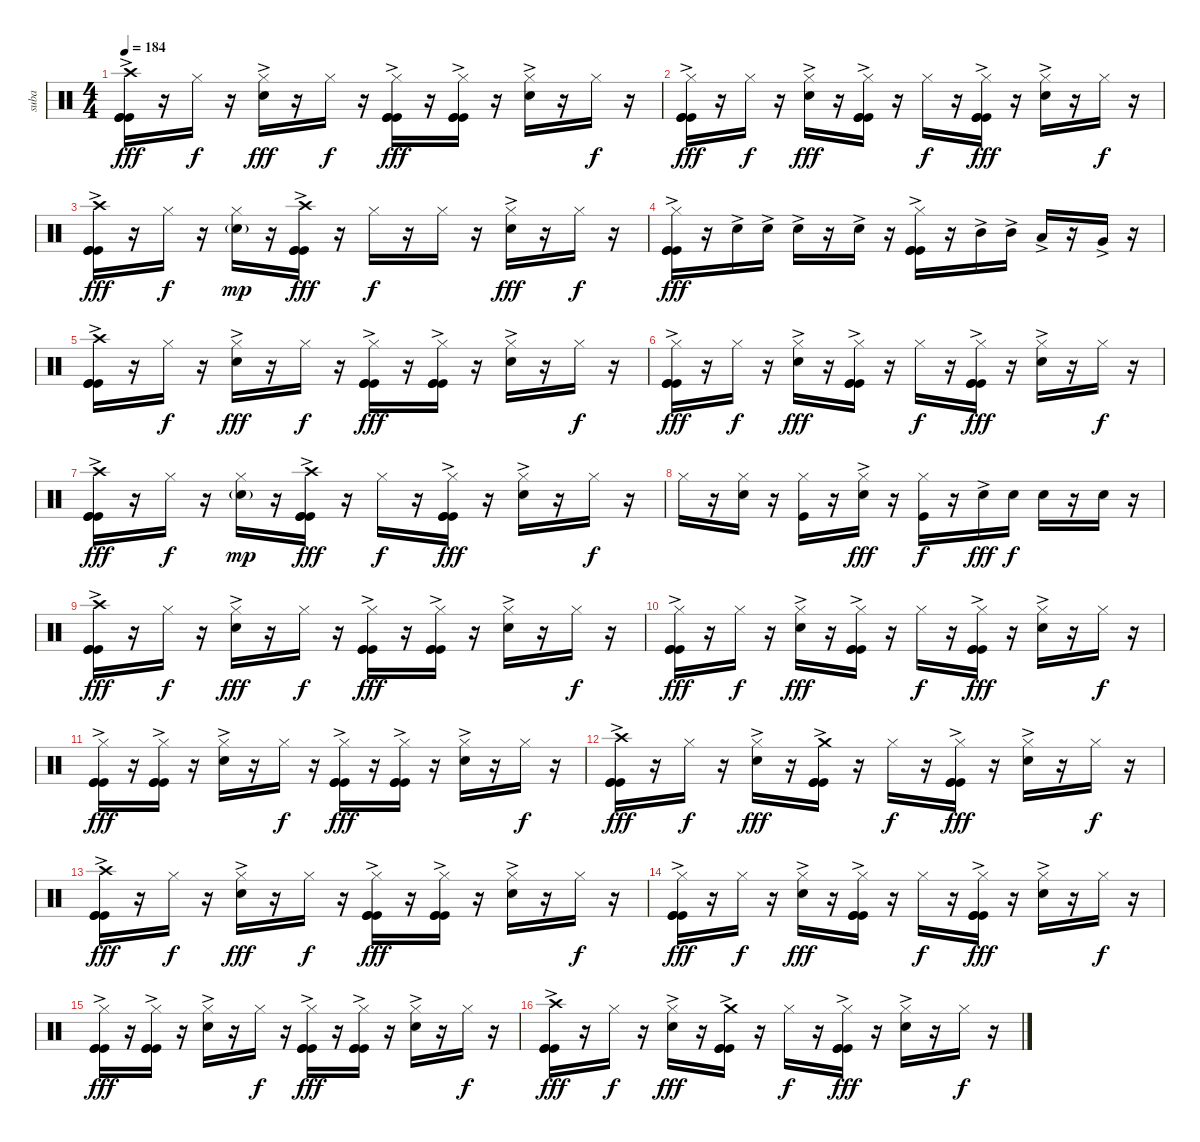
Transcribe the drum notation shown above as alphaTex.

\track ("suba" "suba") {instrument percussion}
\staff {score}
\articulation defaults
\ts (4 4)
\tempo 184
\clef neutral
\ks c
("Crash high (hit)"{ac} "Kick (hit)"{ac} "Kick (hit)"{ac} "Kick (hit)"{ac}).16{dy fff} r.16 "Hi-Hat (closed)".16{dy f} r.16 ("Hi-Hat (closed)" "Snare (hit) 2"{ac}).16{dy fff} r.16 "Hi-Hat (closed)".16{dy f} r.16 ("Hi-Hat (closed)" "Kick (hit)"{ac} "Kick (hit)"{ac} "Kick (hit)"{ac}).16{dy fff} r.16 ("Hi-Hat (closed)" "Kick (hit)"{ac} "Kick (hit)"{ac} "Kick (hit)"{ac}).16 r.16 ("Hi-Hat (closed)" "Snare (hit) 2"{ac}).16 r.16 "Hi-Hat (closed)".16{dy f} r.16 |
("Hi-Hat (closed)" "Kick (hit)"{ac} "Kick (hit)"{ac} "Kick (hit)"{ac}).16{dy fff} r.16 "Hi-Hat (closed)".16{dy f} r.16 ("Hi-Hat (closed)" "Snare (hit) 2"{ac}).16{dy fff} r.16 ("Hi-Hat (closed)" "Kick (hit)"{ac} "Kick (hit)"{ac} "Kick (hit)"{ac}).16 r.16 "Hi-Hat (closed)".16{dy f} r.16 ("Hi-Hat (closed)" "Kick (hit)"{ac} "Kick (hit)"{ac} "Kick (hit)"{ac}).16{dy fff} r.16 ("Hi-Hat (closed)" "Snare (hit) 2"{ac}).16 r.16 "Hi-Hat (closed)".16{dy f} r.16 |
("Crash high (hit)"{ac} "Kick (hit)"{ac} "Kick (hit)"{ac} "Kick (hit)"{ac}).16{dy fff} r.16 "Hi-Hat (closed)".16{dy f} r.16 ("Hi-Hat (closed)" "Snare (hit) 2"{g}).16{dy mp} r.16 ("Crash high (hit)" "Kick (hit)"{ac} "Kick (hit)"{ac} "Kick (hit)"{ac}).16{dy fff} r.16 "Hi-Hat (closed)".16{dy f} r.16 "Hi-Hat (closed)".16 r.16 ("Hi-Hat (closed)" "Snare (hit) 2"{ac}).16{dy fff} r.16 "Hi-Hat (closed)".16{dy f} r.16 |
("Hi-Hat (closed)" "Kick (hit)"{ac} "Kick (hit)"{ac} "Kick (hit)"{ac}).16{dy fff} r.16 "Snare (hit) 2"{ac}.16 "Snare (hit) 2"{ac}.16 "Snare (hit) 2"{ac}.16 r.16 "Snare (hit) 2"{ac}.16 r.16 ("Hi-Hat (closed)" "Kick (hit)"{ac} "Kick (hit)"{ac} "Kick (hit)"{ac}).16 r.16 "Mid Tom (hit)"{ac}.16 "Mid Tom (hit)"{ac}.16 "Low Tom (hit)"{ac}.16 r.16 "Very Low Tom (hit)"{ac}.16 r.16 |
("Crash high (hit)"{ac} "Kick (hit)"{ac} "Kick (hit)"{ac} "Kick (hit)"{ac}).16 r.16 "Hi-Hat (closed)".16{dy f} r.16 ("Hi-Hat (closed)" "Snare (hit) 2"{ac}).16{dy fff} r.16 "Hi-Hat (closed)".16{dy f} r.16 ("Hi-Hat (closed)" "Kick (hit)"{ac} "Kick (hit)"{ac} "Kick (hit)"{ac}).16{dy fff} r.16 ("Hi-Hat (closed)" "Kick (hit)"{ac} "Kick (hit)"{ac} "Kick (hit)"{ac}).16 r.16 ("Hi-Hat (closed)" "Snare (hit) 2"{ac}).16 r.16 "Hi-Hat (closed)".16{dy f} r.16 |
("Hi-Hat (closed)" "Kick (hit)"{ac} "Kick (hit)"{ac} "Kick (hit)"{ac}).16{dy fff} r.16 "Hi-Hat (closed)".16{dy f} r.16 ("Hi-Hat (closed)" "Snare (hit) 2"{ac}).16{dy fff} r.16 ("Hi-Hat (closed)" "Kick (hit)"{ac} "Kick (hit)"{ac} "Kick (hit)"{ac}).16 r.16 "Hi-Hat (closed)".16{dy f} r.16 ("Hi-Hat (closed)" "Kick (hit)"{ac} "Kick (hit)"{ac} "Kick (hit)"{ac}).16{dy fff} r.16 ("Hi-Hat (closed)" "Snare (hit) 2"{ac}).16 r.16 "Hi-Hat (closed)".16{dy f} r.16 |
("Crash high (hit)"{ac} "Kick (hit)"{ac} "Kick (hit)"{ac} "Kick (hit)"{ac}).16{dy fff} r.16 "Hi-Hat (closed)".16{dy f} r.16 ("Hi-Hat (closed)" "Snare (hit) 2"{g}).16{dy mp} r.16 ("Crash high (hit)" "Kick (hit)"{ac} "Kick (hit)"{ac} "Kick (hit)"{ac}).16{dy fff} r.16 "Hi-Hat (closed)".16{dy f} r.16 ("Hi-Hat (closed)" "Kick (hit)"{ac} "Kick (hit)"{ac} "Kick (hit)"{ac}).16{dy fff} r.16 ("Hi-Hat (closed)" "Snare (hit) 2"{ac}).16 r.16 "Hi-Hat (closed)".16{dy f} r.16 |
"Hi-Hat (closed)".16 r.16 ("Hi-Hat (closed)" "Snare (hit) 2").16 r.16 ("Hi-Hat (closed)" "Kick (hit)").16 r.16 ("Hi-Hat (closed)" "Snare (hit) 2"{ac}).16{dy fff} r.16 ("Hi-Hat (closed)" "Kick (hit)").16{dy f} r.16 "Snare (hit) 2"{ac}.16{dy fff} "Snare (hit) 2".16{dy f} "Snare (hit) 2".16 r.16 "Snare (hit) 2".16 r.16 |
("Crash high (hit)"{ac} "Kick (hit)"{ac} "Kick (hit)"{ac} "Kick (hit)"{ac}).16{dy fff} r.16 "Hi-Hat (closed)".16{dy f} r.16 ("Hi-Hat (closed)" "Snare (hit) 2"{ac}).16{dy fff} r.16 "Hi-Hat (closed)".16{dy f} r.16 ("Hi-Hat (closed)" "Kick (hit)"{ac} "Kick (hit)"{ac} "Kick (hit)"{ac}).16{dy fff} r.16 ("Hi-Hat (closed)" "Kick (hit)"{ac} "Kick (hit)"{ac} "Kick (hit)"{ac}).16 r.16 ("Hi-Hat (closed)" "Snare (hit) 2"{ac}).16 r.16 "Hi-Hat (closed)".16{dy f} r.16 |
("Hi-Hat (closed)" "Kick (hit)"{ac} "Kick (hit)"{ac} "Kick (hit)"{ac}).16{dy fff} r.16 "Hi-Hat (closed)".16{dy f} r.16 ("Hi-Hat (closed)" "Snare (hit) 2"{ac}).16{dy fff} r.16 ("Hi-Hat (closed)" "Kick (hit)"{ac} "Kick (hit)"{ac} "Kick (hit)"{ac}).16 r.16 "Hi-Hat (closed)".16{dy f} r.16 ("Hi-Hat (closed)" "Kick (hit)"{ac} "Kick (hit)"{ac} "Kick (hit)"{ac}).16{dy fff} r.16 ("Hi-Hat (closed)" "Snare (hit) 2"{ac}).16 r.16 "Hi-Hat (closed)".16{dy f} r.16 |
("Hi-Hat (closed)" "Kick (hit)"{ac} "Kick (hit)"{ac} "Kick (hit)"{ac}).16{dy fff} r.16 ("Hi-Hat (closed)" "Kick (hit)"{ac} "Kick (hit)"{ac} "Kick (hit)"{ac}).16 r.16 ("Hi-Hat (closed)" "Snare (hit) 2"{ac}).16 r.16 "Hi-Hat (closed)".16{dy f} r.16 ("Hi-Hat (closed)" "Kick (hit)"{ac} "Kick (hit)"{ac} "Kick (hit)"{ac}).16{dy fff} r.16 ("Hi-Hat (closed)" "Kick (hit)"{ac} "Kick (hit)"{ac} "Kick (hit)"{ac}).16 r.16 ("Hi-Hat (closed)" "Snare (hit) 2"{ac}).16 r.16 "Hi-Hat (closed)".16{dy f} r.16 |
("Crash high (hit)" "Kick (hit)"{ac} "Kick (hit)"{ac} "Kick (hit)"{ac}).16{dy fff} r.16 "Hi-Hat (closed)".16{dy f} r.16 ("Hi-Hat (closed)" "Snare (hit) 2"{ac}).16{dy fff} r.16 ("Crash medium (hit)"{ac} "Kick (hit)"{ac} "Kick (hit)"{ac} "Kick (hit)"{ac}).16 r.16 "Hi-Hat (closed)".16{dy f} r.16 ("Hi-Hat (closed)" "Kick (hit)"{ac} "Kick (hit)"{ac} "Kick (hit)"{ac}).16{dy fff} r.16 ("Hi-Hat (closed)" "Snare (hit) 2"{ac}).16 r.16 "Hi-Hat (closed)".16{dy f} r.16 |
("Crash high (hit)"{ac} "Kick (hit)"{ac} "Kick (hit)"{ac} "Kick (hit)"{ac}).16{dy fff} r.16 "Hi-Hat (closed)".16{dy f} r.16 ("Hi-Hat (closed)" "Snare (hit) 2"{ac}).16{dy fff} r.16 "Hi-Hat (closed)".16{dy f} r.16 ("Hi-Hat (closed)" "Kick (hit)"{ac} "Kick (hit)"{ac} "Kick (hit)"{ac}).16{dy fff} r.16 ("Hi-Hat (closed)" "Kick (hit)"{ac} "Kick (hit)"{ac} "Kick (hit)"{ac}).16 r.16 ("Hi-Hat (closed)" "Snare (hit) 2"{ac}).16 r.16 "Hi-Hat (closed)".16{dy f} r.16 |
("Hi-Hat (closed)" "Kick (hit)"{ac} "Kick (hit)"{ac} "Kick (hit)"{ac}).16{dy fff} r.16 "Hi-Hat (closed)".16{dy f} r.16 ("Hi-Hat (closed)" "Snare (hit) 2"{ac}).16{dy fff} r.16 ("Hi-Hat (closed)" "Kick (hit)"{ac} "Kick (hit)"{ac} "Kick (hit)"{ac}).16 r.16 "Hi-Hat (closed)".16{dy f} r.16 ("Hi-Hat (closed)" "Kick (hit)"{ac} "Kick (hit)"{ac} "Kick (hit)"{ac}).16{dy fff} r.16 ("Hi-Hat (closed)" "Snare (hit) 2"{ac}).16 r.16 "Hi-Hat (closed)".16{dy f} r.16 |
("Hi-Hat (closed)" "Kick (hit)"{ac} "Kick (hit)"{ac} "Kick (hit)"{ac}).16{dy fff} r.16 ("Hi-Hat (closed)" "Kick (hit)"{ac} "Kick (hit)"{ac} "Kick (hit)"{ac}).16 r.16 ("Hi-Hat (closed)" "Snare (hit) 2"{ac}).16 r.16 "Hi-Hat (closed)".16{dy f} r.16 ("Hi-Hat (closed)" "Kick (hit)"{ac} "Kick (hit)"{ac} "Kick (hit)"{ac}).16{dy fff} r.16 ("Hi-Hat (closed)" "Kick (hit)"{ac} "Kick (hit)"{ac} "Kick (hit)"{ac}).16 r.16 ("Hi-Hat (closed)" "Snare (hit) 2"{ac}).16 r.16 "Hi-Hat (closed)".16{dy f} r.16 |
("Crash high (hit)" "Kick (hit)"{ac} "Kick (hit)"{ac} "Kick (hit)"{ac}).16{dy fff} r.16 "Hi-Hat (closed)".16{dy f} r.16 ("Hi-Hat (closed)" "Snare (hit) 2"{ac}).16{dy fff} r.16 ("Crash medium (hit)"{ac} "Kick (hit)"{ac} "Kick (hit)"{ac} "Kick (hit)"{ac}).16 r.16 "Hi-Hat (closed)".16{dy f} r.16 ("Hi-Hat (closed)" "Kick (hit)"{ac} "Kick (hit)"{ac} "Kick (hit)"{ac}).16{dy fff} r.16 ("Hi-Hat (closed)" "Snare (hit) 2"{ac}).16 r.16 "Hi-Hat (closed)".16{dy f} r.16
